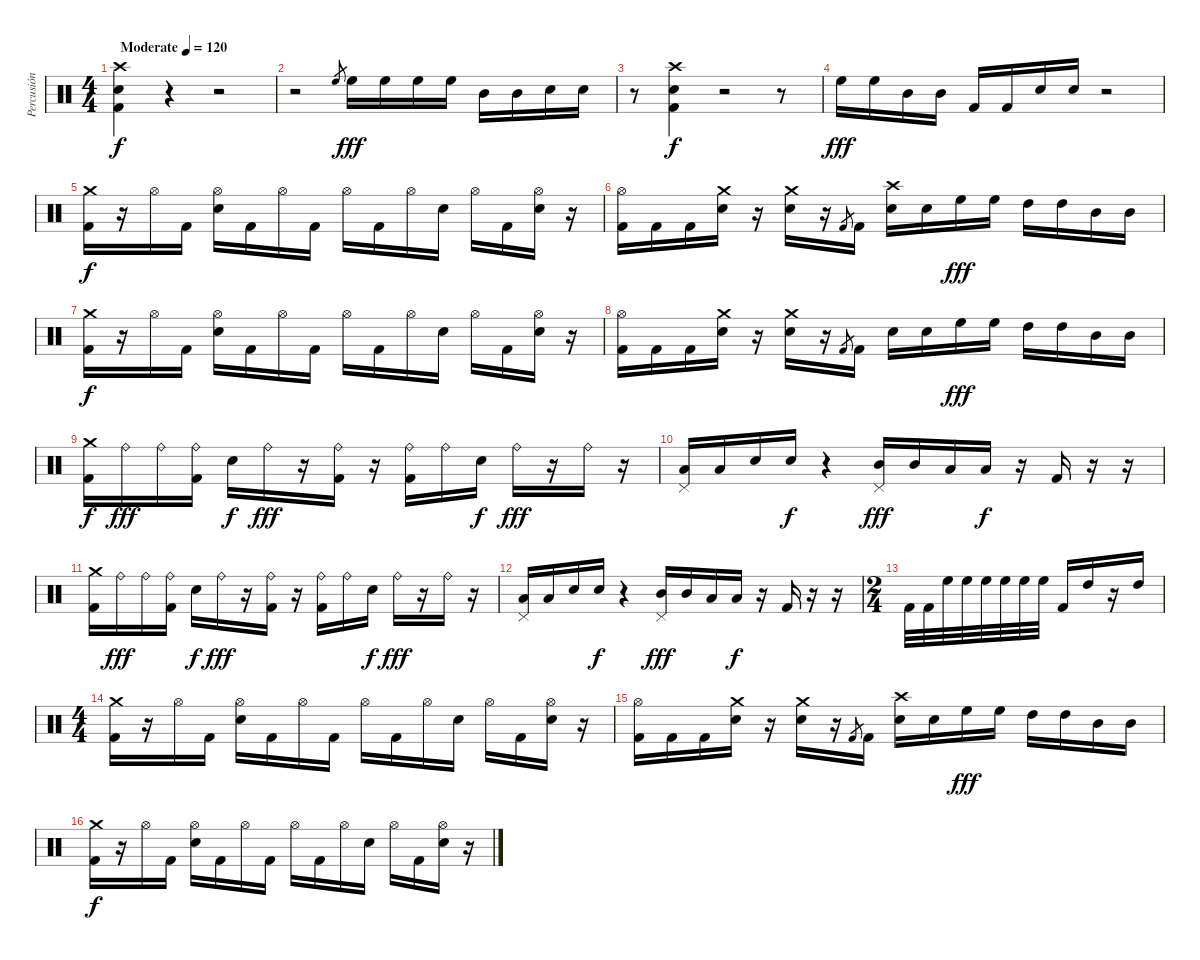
\track ("Percusión" "Percusión") {instrument percussion}
\staff {score}
\articulation defaults
\ts (4 4)
\tempo (120 "Moderate")
\clef neutral
\ks c
("Crash high (hit)" "Electric Snare (hit)" "Kick (hit) 2").4{dy f} r.4 r.2 |
r.2 "High Floor Tom (hit)".8{gr} "High Floor Tom (hit)".16{dy fff} "High Floor Tom (hit)".16 "High Floor Tom (hit)".16 "High Floor Tom (hit)".16 "Mid Tom (hit)".16 "Mid Tom (hit)".16 "Electric Snare (hit)".16 "Electric Snare (hit)".16 |
r.8 ("Crash high (hit)" "Electric Snare (hit)" "Kick (hit) 2").4{dy f} r.2 r.8 |
"High Floor Tom (hit)".16{dy fff} "High Floor Tom (hit)".16 "Mid Tom (hit)".16 "Mid Tom (hit)".16 "Kick (hit) 2".16 "Kick (hit) 2".16 "Electric Snare (hit)".16 "Electric Snare (hit)".16 r.2 |
("Crash medium (hit)" "Kick (hit) 2").16{dy f} r.16 "Hi-Hat (open)".16 "Kick (hit) 2".16 ("Hi-Hat (open)" "Electric Snare (hit)").16 "Kick (hit) 2".16 "Hi-Hat (open)".16 "Kick (hit) 2".16 "Hi-Hat (open)".16 "Kick (hit) 2".16 "Hi-Hat (open)".16 "Electric Snare (hit)".16 "Hi-Hat (open)".16 "Kick (hit) 2".16 ("Hi-Hat (open)" "Electric Snare (hit)").16 r.16 |
("Hi-Hat (open)" "Kick (hit) 2").16 "Kick (hit) 2".16 "Kick (hit) 2".16 ("Crash medium (hit)" "Electric Snare (hit)").16 r.16 ("Crash medium (hit)" "Electric Snare (hit)").16 r.16 "Kick (hit) 2".8{gr} "Kick (hit) 2".16 ("Crash high (hit)" "Electric Snare (hit)").16 "Electric Snare (hit)".16 "High Floor Tom (hit)".16{dy fff} "High Floor Tom (hit)".16 "High Tom (hit)".16 "High Tom (hit)".16 "Mid Tom (hit)".16 "Mid Tom (hit)".16 |
("Crash medium (hit)" "Kick (hit) 2").16{dy f} r.16 "Hi-Hat (open)".16 "Kick (hit) 2".16 ("Hi-Hat (open)" "Electric Snare (hit)").16 "Kick (hit) 2".16 "Hi-Hat (open)".16 "Kick (hit) 2".16 "Hi-Hat (open)".16 "Kick (hit) 2".16 "Hi-Hat (open)".16 "Electric Snare (hit)".16 "Hi-Hat (open)".16 "Kick (hit) 2".16 ("Hi-Hat (open)" "Electric Snare (hit)").16 r.16 |
("Hi-Hat (open)" "Kick (hit) 2").16 "Kick (hit) 2".16 "Kick (hit) 2".16 ("Crash medium (hit)" "Electric Snare (hit)").16 r.16 ("Crash medium (hit)" "Electric Snare (hit)").16 r.16 "Kick (hit) 2".8{gr} "Kick (hit) 2".16 "Electric Snare (hit)".16 "Electric Snare (hit)".16 "High Floor Tom (hit)".16{dy fff} "High Floor Tom (hit)".16 "High Tom (hit)".16 "High Tom (hit)".16 "Mid Tom (hit)".16 "Mid Tom (hit)".16 |
("Crash medium (hit)" "Kick (hit) 2").16{dy f} "Ride (bell)".16{dy fff} "Ride (bell)".16 ("Ride (bell)" "Kick (hit) 2").16 "Electric Snare (hit)".16{dy f} "Ride (bell)".16{dy fff} r.16 ("Ride (bell)" "Kick (hit) 2").16 r.16 ("Ride (bell)" "Kick (hit) 2").16 "Ride (bell)".16 "Electric Snare (hit)".16{dy f} "Ride (bell)".16{dy fff} r.16 "Ride (bell)".16 r.16 |
("Low Tom (hit)" "Pedal Hi-Hat (hit)").16 "Low Tom (hit)".16 "Electric Snare (hit)".16 "Electric Snare (hit)".16{dy f} r.4 ("Mid Tom (hit)" "Pedal Hi-Hat (hit)").16{dy fff} "Mid Tom (hit)".16 "Low Tom (hit)".16 "Low Tom (hit)".16{dy f} r.16 "Kick (hit) 2".16 r.16 r.16 |
("Crash medium (hit)" "Kick (hit) 2").16 "Ride (bell)".16{dy fff} "Ride (bell)".16 ("Ride (bell)" "Kick (hit) 2").16 "Electric Snare (hit)".16{dy f} "Ride (bell)".16{dy fff} r.16 ("Ride (bell)" "Kick (hit) 2").16 r.16 ("Ride (bell)" "Kick (hit) 2").16 "Ride (bell)".16 "Electric Snare (hit)".16{dy f} "Ride (bell)".16{dy fff} r.16 "Ride (bell)".16 r.16 |
("Low Tom (hit)" "Pedal Hi-Hat (hit)").16 "Low Tom (hit)".16 "Electric Snare (hit)".16 "Electric Snare (hit)".16{dy f} r.4 ("Mid Tom (hit)" "Pedal Hi-Hat (hit)").16{dy fff} "Mid Tom (hit)".16 "Low Tom (hit)".16 "Low Tom (hit)".16{dy f} r.16 "Kick (hit) 2".16 r.16 r.16 |
\ts (2 4)
"Kick (hit) 2".32 "Kick (hit) 2".32 "High Floor Tom (hit)".32 "High Floor Tom (hit)".32 "High Floor Tom (hit)".32 "High Floor Tom (hit)".32 "High Floor Tom (hit)".32 "High Floor Tom (hit)".32 "Kick (hit) 2".16 "High Tom (hit)".16 r.16 "High Tom (hit)".16 |
\ts (4 4)
("Crash medium (hit)" "Kick (hit) 2").16 r.16 "Hi-Hat (open)".16 "Kick (hit) 2".16 ("Hi-Hat (open)" "Electric Snare (hit)").16 "Kick (hit) 2".16 "Hi-Hat (open)".16 "Kick (hit) 2".16 "Hi-Hat (open)".16 "Kick (hit) 2".16 "Hi-Hat (open)".16 "Electric Snare (hit)".16 "Hi-Hat (open)".16 "Kick (hit) 2".16 ("Hi-Hat (open)" "Electric Snare (hit)").16 r.16 |
("Hi-Hat (open)" "Kick (hit) 2").16 "Kick (hit) 2".16 "Kick (hit) 2".16 ("Crash medium (hit)" "Electric Snare (hit)").16 r.16 ("Crash medium (hit)" "Electric Snare (hit)").16 r.16 "Kick (hit) 2".8{gr} "Kick (hit) 2".16 ("Crash high (hit)" "Electric Snare (hit)").16 "Electric Snare (hit)".16 "High Floor Tom (hit)".16{dy fff} "High Floor Tom (hit)".16 "High Tom (hit)".16 "High Tom (hit)".16 "Mid Tom (hit)".16 "Mid Tom (hit)".16 |
("Crash medium (hit)" "Kick (hit) 2").16{dy f} r.16 "Hi-Hat (open)".16 "Kick (hit) 2".16 ("Hi-Hat (open)" "Electric Snare (hit)").16 "Kick (hit) 2".16 "Hi-Hat (open)".16 "Kick (hit) 2".16 "Hi-Hat (open)".16 "Kick (hit) 2".16 "Hi-Hat (open)".16 "Electric Snare (hit)".16 "Hi-Hat (open)".16 "Kick (hit) 2".16 ("Hi-Hat (open)" "Electric Snare (hit)").16 r.16
